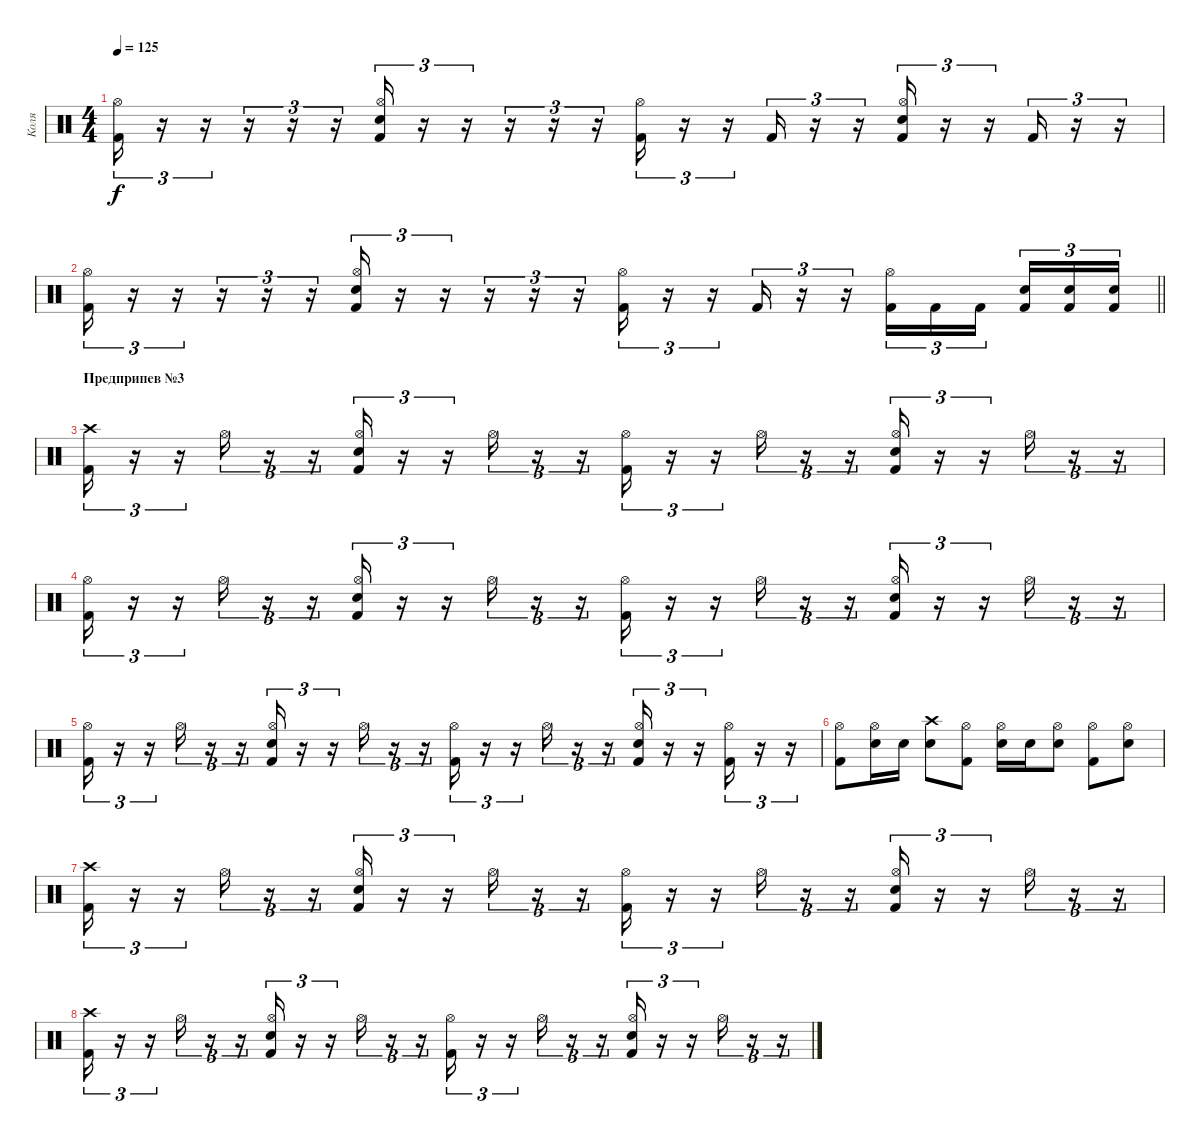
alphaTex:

\track ("Коля" "Коля") {instrument percussion}
\staff {score}
\articulation defaults
\ts (4 4)
\tempo 125
\clef neutral
\ks c
("Kick (hit) 2" "Hi-Hat (open)").16{tu (3 2) dy f} r.16{tu (3 2)} r.16{tu (3 2)} r.16{tu (3 2)} r.16{tu (3 2)} r.16{tu (3 2)} ("Kick (hit) 2" "Snare (hit) 2" "Hi-Hat (open)").16{tu (3 2)} r.16{tu (3 2)} r.16{tu (3 2)} r.16{tu (3 2)} r.16{tu (3 2)} r.16{tu (3 2)} ("Kick (hit) 2" "Hi-Hat (open)").16{tu (3 2)} r.16{tu (3 2)} r.16{tu (3 2)} "Kick (hit) 2".16{tu (3 2)} r.16{tu (3 2)} r.16{tu (3 2)} ("Kick (hit) 2" "Snare (hit) 2" "Hi-Hat (open)").16{tu (3 2)} r.16{tu (3 2)} r.16{tu (3 2)} "Kick (hit) 2".16{tu (3 2)} r.16{tu (3 2)} r.16{tu (3 2)} |
\barLineRight lightlight
("Kick (hit) 2" "Hi-Hat (open)").16{tu (3 2)} r.16{tu (3 2)} r.16{tu (3 2)} r.16{tu (3 2)} r.16{tu (3 2)} r.16{tu (3 2)} ("Kick (hit) 2" "Snare (hit) 2" "Hi-Hat (open)").16{tu (3 2)} r.16{tu (3 2)} r.16{tu (3 2)} r.16{tu (3 2)} r.16{tu (3 2)} r.16{tu (3 2)} ("Kick (hit) 2" "Hi-Hat (open)").16{tu (3 2)} r.16{tu (3 2)} r.16{tu (3 2)} "Kick (hit) 2".16{tu (3 2)} r.16{tu (3 2)} r.16{tu (3 2)} ("Kick (hit) 2" "Hi-Hat (open)").16{tu (3 2)} "Kick (hit) 2".16{tu (3 2)} "Kick (hit) 2".16{tu (3 2) beam splitsecondary} ("Kick (hit) 2" "Snare (hit) 2").16{tu (3 2)} ("Kick (hit) 2" "Snare (hit) 2").16{tu (3 2)} ("Kick (hit) 2" "Snare (hit) 2").16{tu (3 2)} |
\section ("" "Предприпев №3")
("Kick (hit) 2" "Crash high (hit)").16{tu (3 2)} r.16{tu (3 2)} r.16{tu (3 2)} "Hi-Hat (open)".16{tu (3 2)} r.16{tu (3 2)} r.16{tu (3 2)} ("Kick (hit) 2" "Snare (hit) 2" "Hi-Hat (open)").16{tu (3 2)} r.16{tu (3 2)} r.16{tu (3 2)} "Hi-Hat (open)".16{tu (3 2)} r.16{tu (3 2)} r.16{tu (3 2)} ("Kick (hit) 2" "Hi-Hat (open)").16{tu (3 2)} r.16{tu (3 2)} r.16{tu (3 2)} "Hi-Hat (open)".16{tu (3 2)} r.16{tu (3 2)} r.16{tu (3 2)} ("Kick (hit) 2" "Snare (hit) 2" "Hi-Hat (open)").16{tu (3 2)} r.16{tu (3 2)} r.16{tu (3 2)} "Hi-Hat (open)".16{tu (3 2)} r.16{tu (3 2)} r.16{tu (3 2)} |
("Kick (hit) 2" "Hi-Hat (open)").16{tu (3 2)} r.16{tu (3 2)} r.16{tu (3 2)} "Hi-Hat (open)".16{tu (3 2)} r.16{tu (3 2)} r.16{tu (3 2)} ("Kick (hit) 2" "Snare (hit) 2" "Hi-Hat (open)").16{tu (3 2)} r.16{tu (3 2)} r.16{tu (3 2)} "Hi-Hat (open)".16{tu (3 2)} r.16{tu (3 2)} r.16{tu (3 2)} ("Kick (hit) 2" "Hi-Hat (open)").16{tu (3 2)} r.16{tu (3 2)} r.16{tu (3 2)} "Hi-Hat (open)".16{tu (3 2)} r.16{tu (3 2)} r.16{tu (3 2)} ("Kick (hit) 2" "Snare (hit) 2" "Hi-Hat (open)").16{tu (3 2)} r.16{tu (3 2)} r.16{tu (3 2)} "Hi-Hat (open)".16{tu (3 2)} r.16{tu (3 2)} r.16{tu (3 2)} |
("Kick (hit) 2" "Hi-Hat (open)").16{tu (3 2)} r.16{tu (3 2)} r.16{tu (3 2)} "Hi-Hat (open)".16{tu (3 2)} r.16{tu (3 2)} r.16{tu (3 2)} ("Kick (hit) 2" "Snare (hit) 2" "Hi-Hat (open)").16{tu (3 2)} r.16{tu (3 2)} r.16{tu (3 2)} "Hi-Hat (open)".16{tu (3 2)} r.16{tu (3 2)} r.16{tu (3 2)} ("Kick (hit) 2" "Hi-Hat (open)").16{tu (3 2)} r.16{tu (3 2)} r.16{tu (3 2)} "Hi-Hat (open)".16{tu (3 2)} r.16{tu (3 2)} r.16{tu (3 2)} ("Kick (hit) 2" "Snare (hit) 2" "Hi-Hat (open)").16{tu (3 2)} r.16{tu (3 2)} r.16{tu (3 2)} ("Kick (hit) 2" "Hi-Hat (open)").16{tu (3 2)} r.16{tu (3 2)} r.16{tu (3 2)} |
("Kick (hit) 2" "Hi-Hat (open)").8 ("Snare (hit) 2" "Hi-Hat (open)").16 "Snare (hit) 2".16 ("Snare (hit) 2" "Crash high (hit)").8 ("Kick (hit) 2" "Hi-Hat (open)").8 ("Snare (hit) 2" "Hi-Hat (open)").16 "Snare (hit) 2".16 ("Snare (hit) 2" "Hi-Hat (open)").8 ("Kick (hit) 2" "Hi-Hat (open)").8 ("Snare (hit) 2" "Hi-Hat (open)").8 |
("Kick (hit) 2" "Crash high (hit)").16{tu (3 2)} r.16{tu (3 2)} r.16{tu (3 2)} "Hi-Hat (open)".16{tu (3 2)} r.16{tu (3 2)} r.16{tu (3 2)} ("Kick (hit) 2" "Snare (hit) 2" "Hi-Hat (open)").16{tu (3 2)} r.16{tu (3 2)} r.16{tu (3 2)} "Hi-Hat (open)".16{tu (3 2)} r.16{tu (3 2)} r.16{tu (3 2)} ("Kick (hit) 2" "Hi-Hat (open)").16{tu (3 2)} r.16{tu (3 2)} r.16{tu (3 2)} "Hi-Hat (open)".16{tu (3 2)} r.16{tu (3 2)} r.16{tu (3 2)} ("Kick (hit) 2" "Snare (hit) 2" "Hi-Hat (open)").16{tu (3 2)} r.16{tu (3 2)} r.16{tu (3 2)} "Hi-Hat (open)".16{tu (3 2)} r.16{tu (3 2)} r.16{tu (3 2)} |
("Kick (hit) 2" "Crash high (hit)").16{tu (3 2)} r.16{tu (3 2)} r.16{tu (3 2)} "Hi-Hat (open)".16{tu (3 2)} r.16{tu (3 2)} r.16{tu (3 2)} ("Kick (hit) 2" "Snare (hit) 2" "Hi-Hat (open)").16{tu (3 2)} r.16{tu (3 2)} r.16{tu (3 2)} "Hi-Hat (open)".16{tu (3 2)} r.16{tu (3 2)} r.16{tu (3 2)} ("Kick (hit) 2" "Hi-Hat (open)").16{tu (3 2)} r.16{tu (3 2)} r.16{tu (3 2)} "Hi-Hat (open)".16{tu (3 2)} r.16{tu (3 2)} r.16{tu (3 2)} ("Kick (hit) 2" "Snare (hit) 2" "Hi-Hat (open)").16{tu (3 2)} r.16{tu (3 2)} r.16{tu (3 2)} "Hi-Hat (open)".16{tu (3 2)} r.16{tu (3 2)} r.16{tu (3 2)}
